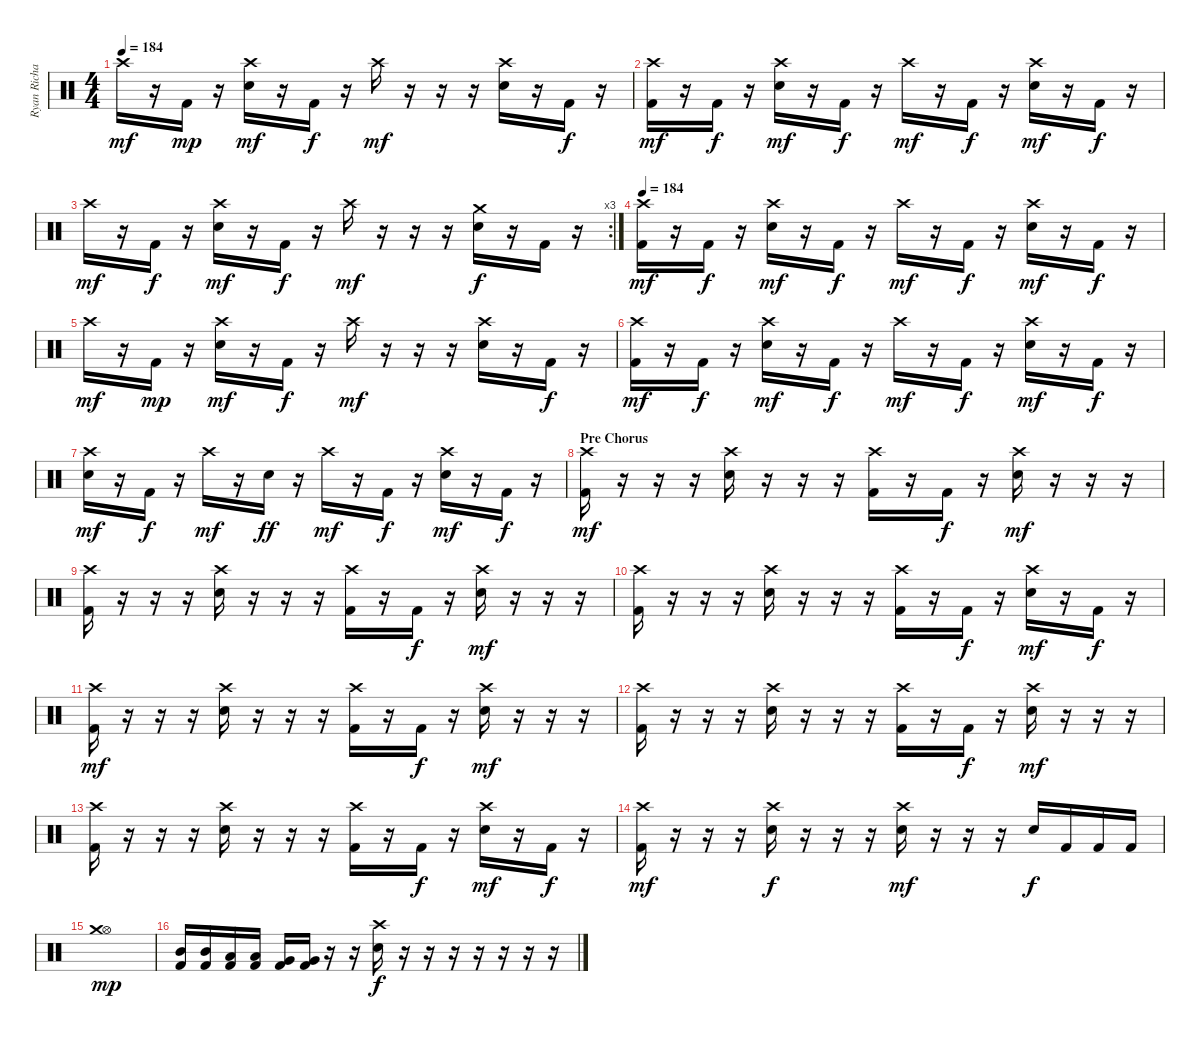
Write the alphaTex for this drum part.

\track ("Ryan Richards" "Ryan Richa") {instrument percussion}
\staff {score}
\articulation defaults
\ts (4 4)
\tempo 184
\clef neutral
\ks c "Crash high (hit)".16{dy mf}
r.16 "Kick (hit) 2".16{dy mp} r.16 ("Snare (hit) 2" "Crash high (hit)").16{dy mf} r.16 "Kick (hit) 2".16{dy f} r.16 "Crash high (hit)".16{dy mf} r.16 r.16 r.16 ("Snare (hit) 2" "Crash high (hit)").16 r.16 "Kick (hit) 2".16{dy f} r.16 |
("Kick (hit) 2" "Crash high (hit)").16{dy mf} r.16 "Kick (hit) 2".16{dy f} r.16 ("Snare (hit) 2" "Crash high (hit)").16{dy mf} r.16 "Kick (hit) 2".16{dy f} r.16 "Crash high (hit)".16{dy mf} r.16 "Kick (hit) 2".16{dy f} r.16 ("Snare (hit) 2" "Crash high (hit)").16{dy mf} r.16 "Kick (hit) 2".16{dy f} r.16 |
\rc 3 "Crash high (hit)".16{dy mf}
r.16 "Kick (hit) 2".16{dy f} r.16 ("Snare (hit) 2" "Crash high (hit)").16{dy mf} r.16 "Kick (hit) 2".16{dy f} r.16 "Crash high (hit)".16{dy mf} r.16 r.16 r.16 ("Snare (hit) 2" "Crash medium (hit)").16{dy f} r.16 "Kick (hit) 2".16 r.16 |
\tempo 184
("Kick (hit) 2" "Crash high (hit)").16{dy mf} r.16 "Kick (hit) 2".16{dy f} r.16 ("Snare (hit) 2" "Crash high (hit)").16{dy mf} r.16 "Kick (hit) 2".16{dy f} r.16 "Crash high (hit)".16{dy mf} r.16 "Kick (hit) 2".16{dy f} r.16 ("Snare (hit) 2" "Crash high (hit)").16{dy mf} r.16 "Kick (hit) 2".16{dy f} r.16 |
"Crash high (hit)".16{dy mf} r.16 "Kick (hit) 2".16{dy mp} r.16 ("Snare (hit) 2" "Crash high (hit)").16{dy mf} r.16 "Kick (hit) 2".16{dy f} r.16 "Crash high (hit)".16{dy mf} r.16 r.16 r.16 ("Snare (hit) 2" "Crash high (hit)").16 r.16 "Kick (hit) 2".16{dy f} r.16 |
("Kick (hit) 2" "Crash high (hit)").16{dy mf} r.16 "Kick (hit) 2".16{dy f} r.16 ("Snare (hit) 2" "Crash high (hit)").16{dy mf} r.16 "Kick (hit) 2".16{dy f} r.16 "Crash high (hit)".16{dy mf} r.16 "Kick (hit) 2".16{dy f} r.16 ("Snare (hit) 2" "Crash high (hit)").16{dy mf} r.16 "Kick (hit) 2".16{dy f} r.16 |
("Snare (hit) 2" "Crash high (hit)").16{dy mf} r.16 "Kick (hit) 2".16{dy f} r.16 "Crash high (hit)".16{dy mf} r.16 "Snare (hit) 2".16{dy ff} r.16 "Crash high (hit)".16{dy mf} r.16 "Kick (hit) 2".16{dy f} r.16 ("Snare (hit) 2" "Crash high (hit)").16{dy mf} r.16 "Kick (hit) 2".16{dy f} r.16 |
\section ("" "Pre Chorus")
("Kick (hit) 2" "Crash high (hit)").16{dy mf} r.16 r.16 r.16 ("Snare (hit) 2" "Crash high (hit)").16 r.16 r.16 r.16 ("Kick (hit) 2" "Crash high (hit)").16 r.16 "Kick (hit) 2".16{dy f} r.16 ("Snare (hit) 2" "Crash high (hit)").16{dy mf} r.16 r.16 r.16 |
("Kick (hit) 2" "Crash high (hit)").16 r.16 r.16 r.16 ("Snare (hit) 2" "Crash high (hit)").16 r.16 r.16 r.16 ("Kick (hit) 2" "Crash high (hit)").16 r.16 "Kick (hit) 2".16{dy f} r.16 ("Snare (hit) 2" "Crash high (hit)").16{dy mf} r.16 r.16 r.16 |
("Kick (hit) 2" "Crash high (hit)").16 r.16 r.16 r.16 ("Snare (hit) 2" "Crash high (hit)").16 r.16 r.16 r.16 ("Kick (hit) 2" "Crash high (hit)").16 r.16 "Kick (hit) 2".16{dy f} r.16 ("Snare (hit) 2" "Crash high (hit)").16{dy mf} r.16 "Kick (hit) 2".16{dy f} r.16 |
("Kick (hit) 2" "Crash high (hit)").16{dy mf} r.16 r.16 r.16 ("Snare (hit) 2" "Crash high (hit)").16 r.16 r.16 r.16 ("Kick (hit) 2" "Crash high (hit)").16 r.16 "Kick (hit) 2".16{dy f} r.16 ("Snare (hit) 2" "Crash high (hit)").16{dy mf} r.16 r.16 r.16 |
("Kick (hit) 2" "Crash high (hit)").16 r.16 r.16 r.16 ("Snare (hit) 2" "Crash high (hit)").16 r.16 r.16 r.16 ("Kick (hit) 2" "Crash high (hit)").16 r.16 "Kick (hit) 2".16{dy f} r.16 ("Snare (hit) 2" "Crash high (hit)").16{dy mf} r.16 r.16 r.16 |
("Kick (hit) 2" "Crash high (hit)").16 r.16 r.16 r.16 ("Snare (hit) 2" "Crash high (hit)").16 r.16 r.16 r.16 ("Kick (hit) 2" "Crash high (hit)").16 r.16 "Kick (hit) 2".16{dy f} r.16 ("Snare (hit) 2" "Crash high (hit)").16{dy mf} r.16 "Kick (hit) 2".16{dy f} r.16 |
("Kick (hit) 2" "Crash high (hit)").16{dy mf} r.16 r.16 r.16 ("Snare (hit) 2" "Crash high (hit)").16{dy f} r.16 r.16 r.16 ("Snare (hit) 2" "Crash high (hit)").16{dy mf} r.16 r.16 r.16 "Snare (hit) 2".16{dy f} "Kick (hit) 2".16 "Kick (hit) 2".16 "Kick (hit) 2".16 |
("Hi-Hat (open)" "Crash medium (hit)").1{dy mp} |
("Kick (hit) 2" "Mid Tom (hit)").16 ("Kick (hit) 2" "Mid Tom (hit)").16 ("Kick (hit) 2" "Low Tom (hit)").16 ("Kick (hit) 2" "Low Tom (hit)").16 ("Kick (hit) 2" "Very Low Tom (hit)").16 ("Kick (hit) 2" "Very Low Tom (hit)").16 r.16 r.16 ("Snare (hit) 2" "Crash high (hit)").16{dy f} r.16 r.16 r.16 r.16 r.16 r.16 r.16
